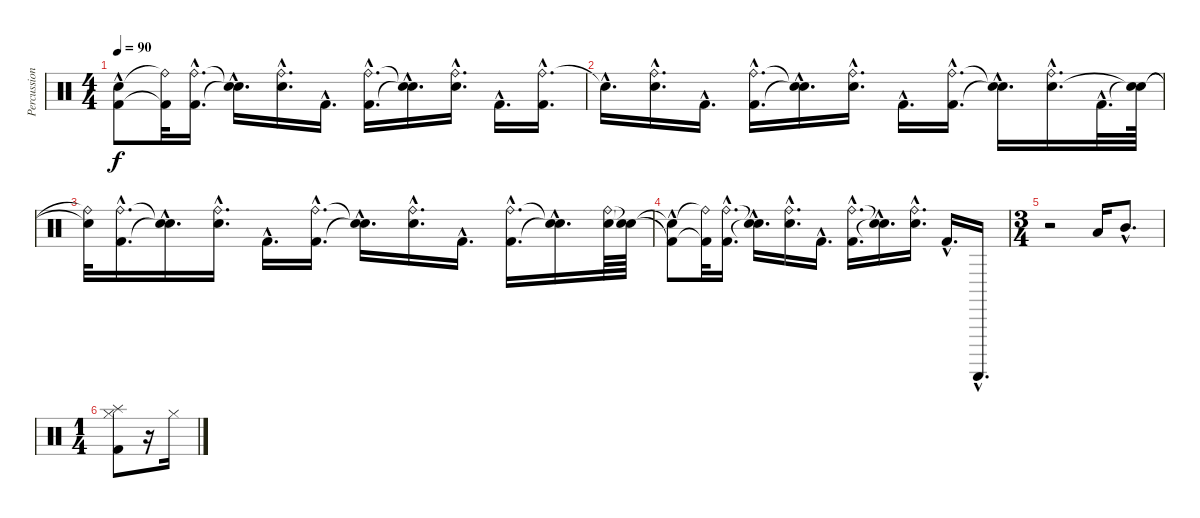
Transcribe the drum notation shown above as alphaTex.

\track ("Percussioni" "Percussion") {instrument percussion}
\staff {score}
\articulation defaults
\ts (4 4)
\tempo 90
\clef neutral
\ks c
("Snare (hit)"{hac t} "Kick (hit) 2"{t}).8{dy f} ("Ride (bell)"{t} "Kick (hit) 2"{t}).32 ("Ride (bell)"{hac} "Kick (hit) 2"{hac}).16{d} ("Snare (hit)"{hac t} "Electric Snare (hit)"{hac t}).16{d} ("Ride (bell)"{hac} "Electric Snare (hit)"{hac}).16{d} "Kick (hit) 2"{hac}.16{d} ("Ride (bell)"{hac} "Kick (hit) 2"{hac}).16{d} ("Snare (hit)"{hac t} "Snare (hit)"{hac t}).16{d} ("Ride (bell)"{hac} "Electric Snare (hit)"{hac}).16{d} "Kick (hit) 2"{hac}.16{d} ("Ride (bell)"{hac} "Kick (hit) 2"{hac}).16{d} |
"Electric Snare (hit)"{hac t}.16{d} ("Ride (bell)"{hac} "Electric Snare (hit)"{hac}).16{d} "Kick (hit) 2"{hac}.16{d} ("Ride (bell)"{hac} "Kick (hit) 2"{hac}).16{d} ("Snare (hit)"{hac t} "Electric Snare (hit)"{hac t}).16{d} ("Ride (bell)"{hac} "Electric Snare (hit)"{hac}).16{d} "Kick (hit) 2"{hac}.16{d} ("Ride (bell)"{hac} "Kick (hit) 2"{hac}).16{d} ("Snare (hit)"{hac t} "Snare (hit)"{hac t}).16{d} ("Ride (bell)"{hac} "Electric Snare (hit)"{hac}).16{d} "Kick (hit) 2"{hac}.32{d} ("Snare (hit)"{t} "Snare (hit)"{t}).64 |
("Ride (bell)"{t} "Snare (hit)"{t}).32 ("Ride (bell)"{hac} "Kick (hit) 2"{hac}).16{d} ("Snare (hit)"{hac t} "Snare (hit)"{hac t}).16{d} ("Ride (bell)"{hac} "Electric Snare (hit)"{hac}).16{d} "Kick (hit) 2"{hac}.16{d} ("Ride (bell)"{hac} "Kick (hit) 2"{hac}).16{d} ("Snare (hit)"{hac t} "Snare (hit)"{hac t}).16{d} ("Ride (bell)"{hac} "Electric Snare (hit)"{hac}).16{d} "Kick (hit) 2"{hac}.16{d} ("Ride (bell)"{hac} "Kick (hit) 2"{hac}).16{d} ("Snare (hit)"{hac t} "Snare (hit)"{hac t}).16{d} ("Ride (bell)" "Electric Snare (hit)").64 ("Snare (hit)"{t} "Snare (hit)"{t}).64 |
("Snare (hit)"{hac t} "Kick (hit) 2"{t}).8 ("Ride (bell)"{t} "Kick (hit) 2"{t}).32 ("Ride (bell)"{hac} "Kick (hit) 2"{hac}).16{d} ("Snare (hit)"{hac t} "Electric Snare (hit)"{hac t}).16{d} ("Ride (bell)"{hac} "Electric Snare (hit)"{hac}).16{d} "Kick (hit) 2"{hac}.16{d} ("Ride (bell)"{hac} "Kick (hit) 2"{hac}).16{d} ("Snare (hit)"{hac t} "Snare (hit)"{hac t}).16{d} ("Ride (bell)"{hac} "Electric Snare (hit)"{hac}).16{d} "Kick (hit) 2"{hac}.16{d} "Guiro (scrap-return)"{hac}.16{d} |
\ts (3 4)
r.2 "Low Tom (hit)".16 "Mid Tom (hit)"{hac}.8{d} |
\ts (1 4)
("Splash (hit)" "Hi-Hat (closed)" "Kick (hit) 2").8 r.16 "Hi-Hat (closed)".16
